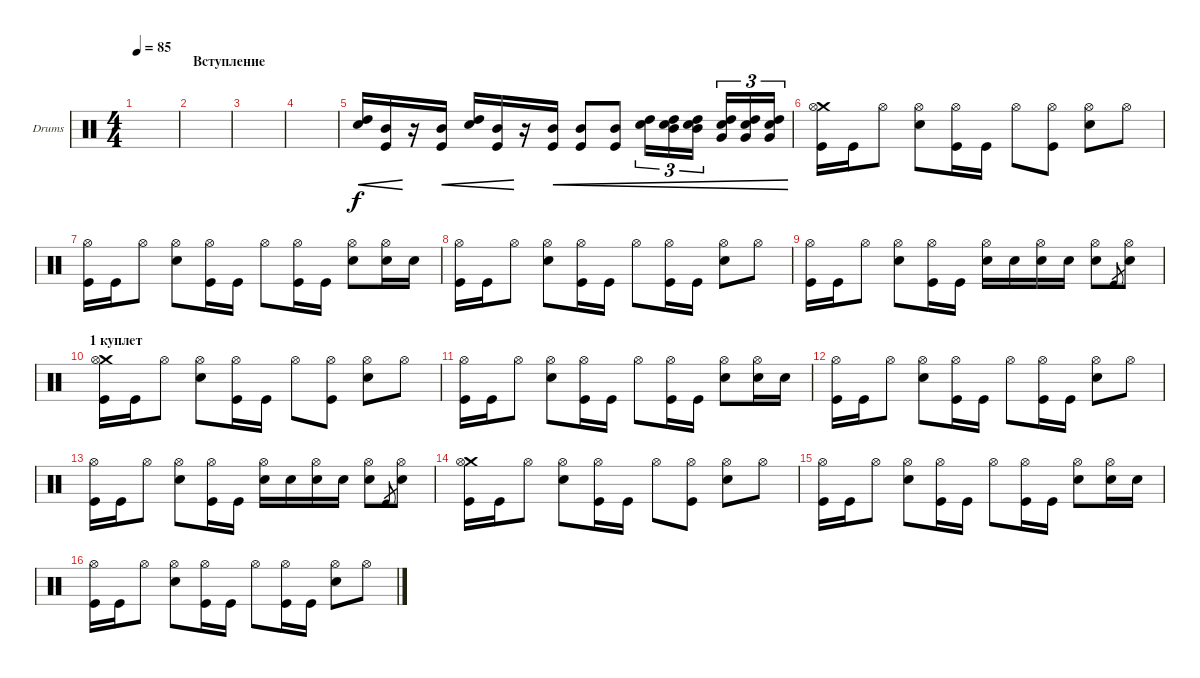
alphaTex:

\defaultSystemsLayout 4
\bracketExtendMode groupsimilarinstruments
\firstSystemTrackNameOrientation horizontal
\otherSystemsTrackNameOrientation horizontal
\track ("Drumkit" "Drums") {instrument percussion}
\staff {score}
\articulation defaults
\ts (4 4)
\tempo 85
\clef neutral
\scale
0.472222
\ks c
|
\section ("" "Вступление")
\scale
0.263889 |
\scale
0.263889 |
\scale
0.333333 |
\scale
0.32475 ("Snare (hit) 2" "High Tom (hit)").16{cre} ("Kick (hit)" "Mid Tom (hit)").16{cre} r.16 ("Kick (hit)" "Mid Tom (hit)").16{cre} ("Snare (hit) 2" "High Tom (hit)").16{cre} ("Kick (hit)" "Mid Tom (hit)").16{cre} r.16 ("Kick (hit)" "Mid Tom (hit)").16{cre} ("Kick (hit)" "Mid Tom (hit)").8{cre} ("Kick (hit)" "Mid Tom (hit)").8{cre} ("Snare (hit) 2" "High Tom (hit)").16{tu (3 2) cre} ("Snare (hit) 2" "High Tom (hit)" "Mid Tom (hit)").16{tu (3 2) cre} ("Snare (hit) 2" "High Tom (hit)" "Mid Tom (hit)").16{tu (3 2) cre} ("Snare (hit) 2" "High Tom (hit)" "Very Low Tom (hit)").16{tu (3 2) cre} ("High Tom (hit)" "Snare (hit) 2" "Very Low Tom (hit)").16{tu (3 2) cre} ("High Tom (hit)" "Snare (hit) 2" "Very Low Tom (hit)").16{tu (3 2) cre} |
\scale
0.341844 ("Kick (hit)" "Crash medium (hit)" "Hi-Hat (open)").16 "Kick (hit)".16 "Hi-Hat (open)".8 ("Snare (hit) 2" "Hi-Hat (open)").8 ("Kick (hit)" "Hi-Hat (open)").16 "Kick (hit)".16 "Hi-Hat (open)".8 ("Kick (hit)" "Hi-Hat (open)").8 ("Snare (hit) 2" "Hi-Hat (open)").8 "Hi-Hat (open)".8 |
("Kick (hit)" "Hi-Hat (open)").16 "Kick (hit)".16 "Hi-Hat (open)".8 ("Snare (hit) 2" "Hi-Hat (open)").8 ("Kick (hit)" "Hi-Hat (open)").16 "Kick (hit)".16 "Hi-Hat (open)".8 ("Kick (hit)" "Hi-Hat (open)").16 "Kick (hit)".16 ("Snare (hit) 2" "Hi-Hat (open)").8 ("Hi-Hat (open)" "Snare (hit) 2").16 "Snare (hit) 2".16 |
("Kick (hit)" "Hi-Hat (open)").16 "Kick (hit)".16 "Hi-Hat (open)".8 ("Snare (hit) 2" "Hi-Hat (open)").8 ("Kick (hit)" "Hi-Hat (open)").16 "Kick (hit)".16 "Hi-Hat (open)".8 ("Kick (hit)" "Hi-Hat (open)").16 "Kick (hit)".16 ("Snare (hit) 2" "Hi-Hat (open)").8 "Hi-Hat (open)".8 |
("Kick (hit)" "Hi-Hat (open)").16 "Kick (hit)".16 "Hi-Hat (open)".8 ("Snare (hit) 2" "Hi-Hat (open)").8 ("Kick (hit)" "Hi-Hat (open)").16 "Kick (hit)".16 ("Snare (hit) 2" "Hi-Hat (open)").16 "Snare (hit) 2".16 ("Snare (hit) 2" "Hi-Hat (open)").16 "Snare (hit) 2".16 ("Snare (hit) 2" "Hi-Hat (open)").8 "Kick (hit)".8{gr} ("Snare (hit) 2" "Hi-Hat (open)").8 |
\section ("" "1 куплет")
("Kick (hit)" "Crash medium (hit)" "Hi-Hat (open)").16 "Kick (hit)".16 "Hi-Hat (open)".8 ("Snare (hit) 2" "Hi-Hat (open)").8 ("Kick (hit)" "Hi-Hat (open)").16 "Kick (hit)".16 "Hi-Hat (open)".8 ("Kick (hit)" "Hi-Hat (open)").8 ("Snare (hit) 2" "Hi-Hat (open)").8 "Hi-Hat (open)".8 |
("Kick (hit)" "Hi-Hat (open)").16 "Kick (hit)".16 "Hi-Hat (open)".8 ("Snare (hit) 2" "Hi-Hat (open)").8 ("Kick (hit)" "Hi-Hat (open)").16 "Kick (hit)".16 "Hi-Hat (open)".8 ("Kick (hit)" "Hi-Hat (open)").16 "Kick (hit)".16 ("Snare (hit) 2" "Hi-Hat (open)").8 ("Hi-Hat (open)" "Snare (hit) 2").16 "Snare (hit) 2".16 |
("Kick (hit)" "Hi-Hat (open)").16 "Kick (hit)".16 "Hi-Hat (open)".8 ("Snare (hit) 2" "Hi-Hat (open)").8 ("Kick (hit)" "Hi-Hat (open)").16 "Kick (hit)".16 "Hi-Hat (open)".8 ("Kick (hit)" "Hi-Hat (open)").16 "Kick (hit)".16 ("Snare (hit) 2" "Hi-Hat (open)").8 "Hi-Hat (open)".8 |
("Kick (hit)" "Hi-Hat (open)").16 "Kick (hit)".16 "Hi-Hat (open)".8 ("Snare (hit) 2" "Hi-Hat (open)").8 ("Kick (hit)" "Hi-Hat (open)").16 "Kick (hit)".16 ("Snare (hit) 2" "Hi-Hat (open)").16 "Snare (hit) 2".16 ("Snare (hit) 2" "Hi-Hat (open)").16 "Snare (hit) 2".16 ("Snare (hit) 2" "Hi-Hat (open)").8 "Kick (hit)".8{gr} ("Snare (hit) 2" "Hi-Hat (open)").8 |
("Kick (hit)" "Crash medium (hit)" "Hi-Hat (open)").16 "Kick (hit)".16 "Hi-Hat (open)".8 ("Snare (hit) 2" "Hi-Hat (open)").8 ("Kick (hit)" "Hi-Hat (open)").16 "Kick (hit)".16 "Hi-Hat (open)".8 ("Kick (hit)" "Hi-Hat (open)").8 ("Snare (hit) 2" "Hi-Hat (open)").8 "Hi-Hat (open)".8 |
("Kick (hit)" "Hi-Hat (open)").16 "Kick (hit)".16 "Hi-Hat (open)".8 ("Snare (hit) 2" "Hi-Hat (open)").8 ("Kick (hit)" "Hi-Hat (open)").16 "Kick (hit)".16 "Hi-Hat (open)".8 ("Kick (hit)" "Hi-Hat (open)").16 "Kick (hit)".16 ("Snare (hit) 2" "Hi-Hat (open)").8 ("Hi-Hat (open)" "Snare (hit) 2").16 "Snare (hit) 2".16 |
("Kick (hit)" "Hi-Hat (open)").16 "Kick (hit)".16 "Hi-Hat (open)".8 ("Snare (hit) 2" "Hi-Hat (open)").8 ("Kick (hit)" "Hi-Hat (open)").16 "Kick (hit)".16 "Hi-Hat (open)".8 ("Kick (hit)" "Hi-Hat (open)").16 "Kick (hit)".16 ("Snare (hit) 2" "Hi-Hat (open)").8 "Hi-Hat (open)".8
